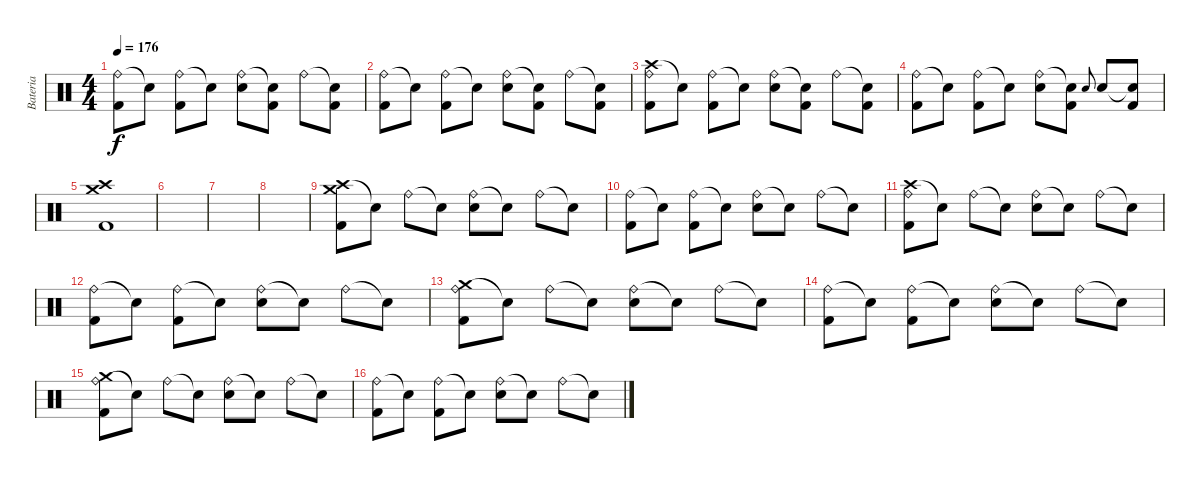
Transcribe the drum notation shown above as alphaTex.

\track ("Bateria" "Bateria") {instrument percussion}
\staff {score}
\articulation defaults
\ts (4 4)
\tempo 176
\clef neutral
\ks c
("Ride (bell)" "Kick (hit) 2").8{dy f} "Snare (hit)"{t}.8 ("Ride (bell)" "Kick (hit) 2").8 "Snare (hit)"{t}.8 ("Ride (bell)" "Electric Snare (hit)").8 ("Snare (hit)"{t} "Kick (hit) 2").8 "Ride (bell)".8 ("Snare (hit)"{t} "Kick (hit) 2").8 |
("Ride (bell)" "Kick (hit) 2").8 "Snare (hit)"{t}.8 ("Ride (bell)" "Kick (hit) 2").8 "Snare (hit)"{t}.8 ("Ride (bell)" "Electric Snare (hit)").8 ("Snare (hit)"{t} "Kick (hit) 2").8 "Ride (bell)".8 ("Snare (hit)"{t} "Kick (hit) 2").8 |
("Crash high (hit)" "Ride (bell)" "Kick (hit) 2").8 "Snare (hit)"{t}.8 ("Ride (bell)" "Kick (hit) 2").8 "Snare (hit)"{t}.8 ("Ride (bell)" "Electric Snare (hit)").8 ("Snare (hit)"{t} "Kick (hit) 2").8 "Ride (bell)".8 ("Snare (hit)"{t} "Kick (hit) 2").8 |
("Ride (bell)" "Kick (hit) 2").8 "Snare (hit)"{t}.8 ("Ride (bell)" "Kick (hit) 2").8 "Snare (hit)"{t}.8 ("Ride (bell)" "Electric Snare (hit)").8 ("Snare (hit)"{t} "Kick (hit) 2").8 "Electric Snare (hit)".8{gr onbeat} "Electric Snare (hit)".8 ("Snare (hit)"{t} "Kick (hit) 2").8 |
("Crash medium (hit)" "Crash high (hit)" "Kick (hit) 2").1 |
|
|
|
("Crash high (hit)" "Crash medium (hit)" "Kick (hit) 2").8 "Snare (hit)"{t}.8 "Ride (bell)".8 "Snare (hit)"{t}.8 ("Ride (bell)" "Electric Snare (hit)").8 "Snare (hit)"{t}.8 "Ride (bell)".8 "Snare (hit)"{t}.8 |
("Ride (bell)" "Kick (hit) 2").8 "Snare (hit)"{t}.8 ("Ride (bell)" "Kick (hit) 2").8 "Snare (hit)"{t}.8 ("Ride (bell)" "Electric Snare (hit)").8 "Snare (hit)"{t}.8 "Ride (bell)".8 "Snare (hit)"{t}.8 |
("Crash high (hit)" "Ride (bell)" "Kick (hit) 2").8 "Snare (hit)"{t}.8 "Ride (bell)".8 "Snare (hit)"{t}.8 ("Ride (bell)" "Electric Snare (hit)").8 "Snare (hit)"{t}.8 "Ride (bell)".8 "Snare (hit)"{t}.8 |
("Ride (bell)" "Kick (hit) 2").8 "Snare (hit)"{t}.8 ("Ride (bell)" "Kick (hit) 2").8 "Snare (hit)"{t}.8 ("Ride (bell)" "Electric Snare (hit)").8 "Snare (hit)"{t}.8 "Ride (bell)".8 "Snare (hit)"{t}.8 |
("Crash medium (hit)" "Ride (bell)" "Kick (hit) 2").8 "Snare (hit)"{t}.8 "Ride (bell)".8 "Snare (hit)"{t}.8 ("Ride (bell)" "Electric Snare (hit)").8 "Snare (hit)"{t}.8 "Ride (bell)".8 "Snare (hit)"{t}.8 |
("Ride (bell)" "Kick (hit) 2").8 "Snare (hit)"{t}.8 ("Ride (bell)" "Kick (hit) 2").8 "Snare (hit)"{t}.8 ("Ride (bell)" "Electric Snare (hit)").8 "Snare (hit)"{t}.8 "Ride (bell)".8 "Snare (hit)"{t}.8 |
("Crash medium (hit)" "Ride (bell)" "Kick (hit) 2").8 "Snare (hit)"{t}.8 "Ride (bell)".8 "Snare (hit)"{t}.8 ("Ride (bell)" "Electric Snare (hit)").8 "Snare (hit)"{t}.8 "Ride (bell)".8 "Snare (hit)"{t}.8 |
("Ride (bell)" "Kick (hit) 2").8 "Snare (hit)"{t}.8 ("Ride (bell)" "Kick (hit) 2").8 "Snare (hit)"{t}.8 ("Ride (bell)" "Electric Snare (hit)").8 "Snare (hit)"{t}.8 "Ride (bell)".8 "Snare (hit)"{t}.8
